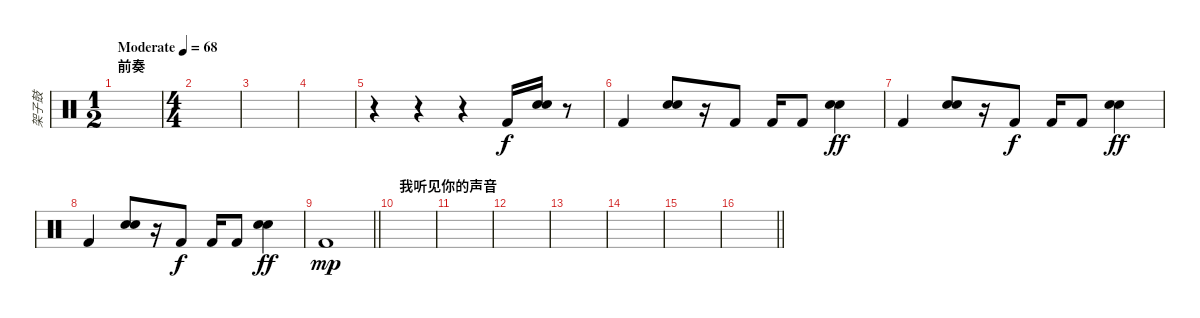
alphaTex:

\track ("架子鼓" "架子鼓") {instrument percussion}
\staff {score}
\articulation defaults
\ts (1 2)
\section ("" "前奏")
\tempo (68 "Moderate")
\clef neutral
\ks c
|
\ts (4 4)
|
|
|
r.4 r.4 r.4 "Kick (hit) 2".16 ("Snare (hit) 2" "Hand Clap (hit)").16 r.8 |
"Kick (hit) 2".4 ("Snare (hit) 2" "Hand Clap (hit)").8 r.16 "Kick (hit) 2".8{dy f} "Kick (hit) 2".16 "Kick (hit) 2".8 ("Snare (hit) 2" "Hand Clap (hit)").4{dy ff} |
"Kick (hit) 2".4 ("Hand Clap (hit)" "Snare (hit) 2").8 r.16 "Kick (hit) 2".8{dy f} "Kick (hit) 2".16 "Kick (hit) 2".8 ("Snare (hit) 2" "Hand Clap (hit)").4{dy ff} |
"Kick (hit) 2".4 ("Snare (hit) 2" "Hand Clap (hit)").8 r.16 "Kick (hit) 2".8{dy f} "Kick (hit) 2".16 "Kick (hit) 2".8 ("Snare (hit) 2" "Hand Clap (hit)").4{dy ff} |
\barLineRight lightlight "Kick (hit) 2".1{dy mp}
|
\section ("" "我听见你的声音")
|
|
|
|
|
|
\barLineRight lightlight
